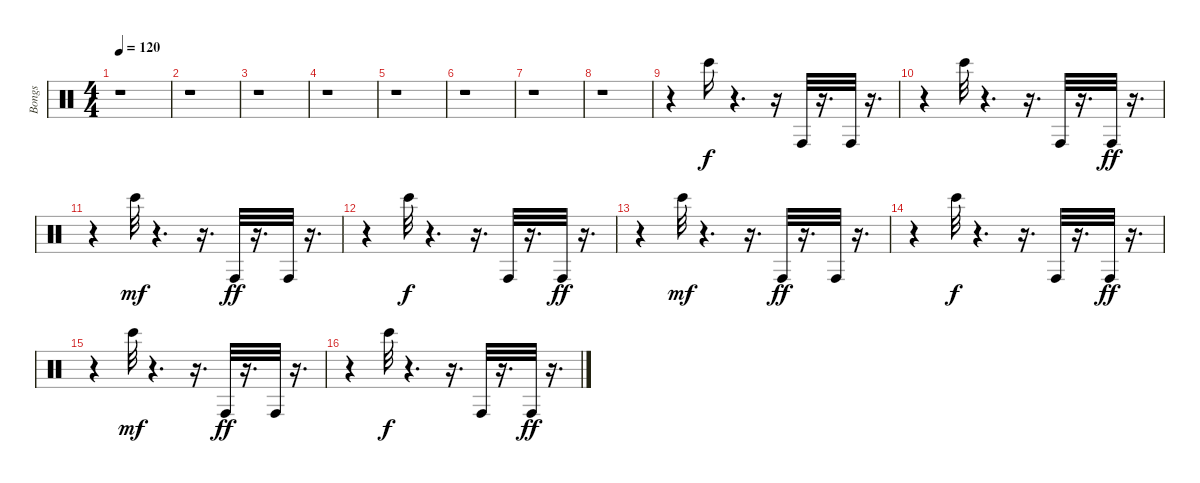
\track ("Bongs" "Bongs") {instrument percussion}
\staff {score}
\articulation defaults
\ts (4 4)
\tempo 120
\clef neutral
\ks c
r.1{dy ff} |
r.1 |
r.1 |
r.1 |
r.1 |
r.1 |
r.1 |
r.1 |
r.4 "Bongo High (hit)".16{dy f} r.4{d} r.16 "Conga high (hit)".32 r.16{d} "Conga high (hit)".32 r.16{d} |
r.4 "Bongo High (hit)".32 r.4{d} r.16{d} "Conga high (hit)".32 r.16{d} "Conga high (hit)".32{dy ff} r.16{d} |
r.4 "Bongo High (hit)".32{dy mf} r.4{d} r.16{d} "Conga high (hit)".32{dy ff} r.16{d} "Conga high (hit)".32 r.16{d} |
r.4 "Bongo High (hit)".32{dy f} r.4{d} r.16{d} "Conga high (hit)".32 r.16{d} "Conga high (hit)".32{dy ff} r.16{d} |
r.4 "Bongo High (hit)".32{dy mf} r.4{d} r.16{d} "Conga high (hit)".32{dy ff} r.16{d} "Conga high (hit)".32 r.16{d} |
r.4 "Bongo High (hit)".32{dy f} r.4{d} r.16{d} "Conga high (hit)".32 r.16{d} "Conga high (hit)".32{dy ff} r.16{d} |
r.4 "Bongo High (hit)".32{dy mf} r.4{d} r.16{d} "Conga high (hit)".32{dy ff} r.16{d} "Conga high (hit)".32 r.16{d} |
r.4 "Bongo High (hit)".32{dy f} r.4{d} r.16{d} "Conga high (hit)".32 r.16{d} "Conga high (hit)".32{dy ff} r.16{d}
